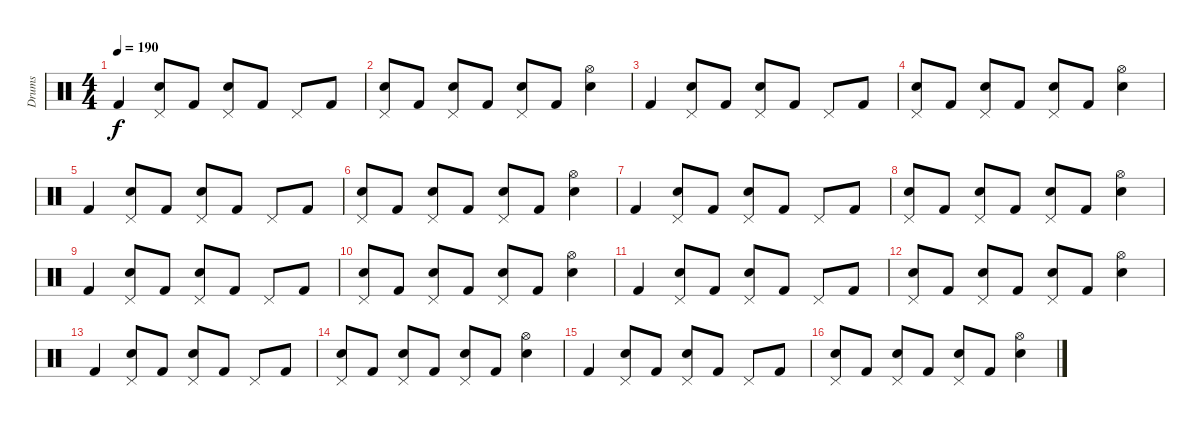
\track ("Drums" "Drums") {instrument percussion}
\staff {score}
\articulation defaults
\ts (4 4)
\tempo 190
\clef neutral
\ks c "Kick (hit) 2".4{dy f}
("Pedal Hi-Hat (hit)" "Snare (hit) 2").8 "Kick (hit) 2".8 ("Pedal Hi-Hat (hit)" "Snare (hit) 2").8 "Kick (hit) 2".8 "Pedal Hi-Hat (hit)".8 "Kick (hit) 2".8 |
("Pedal Hi-Hat (hit)" "Snare (hit) 2").8 "Kick (hit) 2".8 ("Pedal Hi-Hat (hit)" "Snare (hit) 2").8 "Kick (hit) 2".8 ("Pedal Hi-Hat (hit)" "Snare (hit) 2").8 "Kick (hit) 2".8 ("Hi-Hat (open)" "Snare (hit) 2").4 |
"Kick (hit) 2".4 ("Pedal Hi-Hat (hit)" "Snare (hit) 2").8 "Kick (hit) 2".8 ("Pedal Hi-Hat (hit)" "Snare (hit) 2").8 "Kick (hit) 2".8 "Pedal Hi-Hat (hit)".8 "Kick (hit) 2".8 |
("Pedal Hi-Hat (hit)" "Snare (hit) 2").8 "Kick (hit) 2".8 ("Pedal Hi-Hat (hit)" "Snare (hit) 2").8 "Kick (hit) 2".8 ("Pedal Hi-Hat (hit)" "Snare (hit) 2").8 "Kick (hit) 2".8 ("Hi-Hat (open)" "Snare (hit) 2").4 |
"Kick (hit) 2".4 ("Pedal Hi-Hat (hit)" "Snare (hit) 2").8 "Kick (hit) 2".8 ("Pedal Hi-Hat (hit)" "Snare (hit) 2").8 "Kick (hit) 2".8 "Pedal Hi-Hat (hit)".8 "Kick (hit) 2".8 |
("Pedal Hi-Hat (hit)" "Snare (hit) 2").8 "Kick (hit) 2".8 ("Pedal Hi-Hat (hit)" "Snare (hit) 2").8 "Kick (hit) 2".8 ("Pedal Hi-Hat (hit)" "Snare (hit) 2").8 "Kick (hit) 2".8 ("Hi-Hat (open)" "Snare (hit) 2").4 |
"Kick (hit) 2".4 ("Pedal Hi-Hat (hit)" "Snare (hit) 2").8 "Kick (hit) 2".8 ("Pedal Hi-Hat (hit)" "Snare (hit) 2").8 "Kick (hit) 2".8 "Pedal Hi-Hat (hit)".8 "Kick (hit) 2".8 |
("Pedal Hi-Hat (hit)" "Snare (hit) 2").8 "Kick (hit) 2".8 ("Pedal Hi-Hat (hit)" "Snare (hit) 2").8 "Kick (hit) 2".8 ("Pedal Hi-Hat (hit)" "Snare (hit) 2").8 "Kick (hit) 2".8 ("Hi-Hat (open)" "Snare (hit) 2").4 |
"Kick (hit) 2".4 ("Pedal Hi-Hat (hit)" "Snare (hit) 2").8 "Kick (hit) 2".8 ("Pedal Hi-Hat (hit)" "Snare (hit) 2").8 "Kick (hit) 2".8 "Pedal Hi-Hat (hit)".8 "Kick (hit) 2".8 |
("Pedal Hi-Hat (hit)" "Snare (hit) 2").8 "Kick (hit) 2".8 ("Pedal Hi-Hat (hit)" "Snare (hit) 2").8 "Kick (hit) 2".8 ("Pedal Hi-Hat (hit)" "Snare (hit) 2").8 "Kick (hit) 2".8 ("Hi-Hat (open)" "Snare (hit) 2").4 |
"Kick (hit) 2".4 ("Pedal Hi-Hat (hit)" "Snare (hit) 2").8 "Kick (hit) 2".8 ("Pedal Hi-Hat (hit)" "Snare (hit) 2").8 "Kick (hit) 2".8 "Pedal Hi-Hat (hit)".8 "Kick (hit) 2".8 |
("Pedal Hi-Hat (hit)" "Snare (hit) 2").8 "Kick (hit) 2".8 ("Pedal Hi-Hat (hit)" "Snare (hit) 2").8 "Kick (hit) 2".8 ("Pedal Hi-Hat (hit)" "Snare (hit) 2").8 "Kick (hit) 2".8 ("Hi-Hat (open)" "Snare (hit) 2").4 |
"Kick (hit) 2".4 ("Pedal Hi-Hat (hit)" "Snare (hit) 2").8 "Kick (hit) 2".8 ("Pedal Hi-Hat (hit)" "Snare (hit) 2").8 "Kick (hit) 2".8 "Pedal Hi-Hat (hit)".8 "Kick (hit) 2".8 |
("Pedal Hi-Hat (hit)" "Snare (hit) 2").8 "Kick (hit) 2".8 ("Pedal Hi-Hat (hit)" "Snare (hit) 2").8 "Kick (hit) 2".8 ("Pedal Hi-Hat (hit)" "Snare (hit) 2").8 "Kick (hit) 2".8 ("Hi-Hat (open)" "Snare (hit) 2").4 |
"Kick (hit) 2".4 ("Pedal Hi-Hat (hit)" "Snare (hit) 2").8 "Kick (hit) 2".8 ("Pedal Hi-Hat (hit)" "Snare (hit) 2").8 "Kick (hit) 2".8 "Pedal Hi-Hat (hit)".8 "Kick (hit) 2".8 |
("Pedal Hi-Hat (hit)" "Snare (hit) 2").8 "Kick (hit) 2".8 ("Pedal Hi-Hat (hit)" "Snare (hit) 2").8 "Kick (hit) 2".8 ("Pedal Hi-Hat (hit)" "Snare (hit) 2").8 "Kick (hit) 2".8 ("Hi-Hat (open)" "Snare (hit) 2").4
